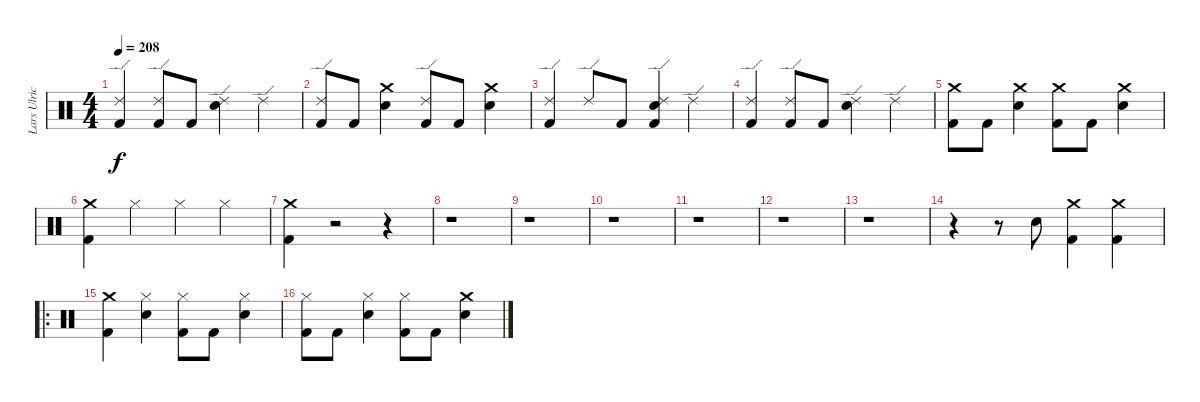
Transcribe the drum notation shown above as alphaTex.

\track ("Lars Ulrich (Drums)" "Lars Ulric") {instrument percussion}
\staff {score}
\articulation defaults
\ts (4 4)
\tempo 208
\clef neutral
\ks c
("Kick (hit) 2" "Ride (edge) 2").4{dy f} ("Kick (hit) 2" "Ride (edge) 2").8 "Kick (hit) 2".8 ("Ride (edge) 2" "Snare (hit) 2").4 "Ride (edge) 2".4 |
("Ride (edge) 2" "Kick (hit) 2").8 "Kick (hit) 2".8 ("Snare (hit) 2" "Crash medium (hit)").4 ("Ride (edge) 2" "Kick (hit) 2").8 "Kick (hit) 2".8 ("Snare (hit) 2" "Crash medium (hit)").4 |
("Ride (edge) 2" "Kick (hit) 2").4 "Ride (edge) 2".8 "Kick (hit) 2".8 ("Ride (edge) 2" "Snare (hit) 2" "Kick (hit) 2").4 "Ride (edge) 2".4 |
("Kick (hit) 2" "Ride (edge) 2").4 ("Ride (edge) 2" "Kick (hit) 2").8 "Kick (hit) 2".8 ("Snare (hit) 2" "Ride (edge) 2").4 "Ride (edge) 2".4 |
("Kick (hit) 2" "Crash medium (hit)").8 "Kick (hit) 2".8 ("Snare (hit) 2" "Crash medium (hit)").4 ("Kick (hit) 2" "Crash medium (hit)").8 "Kick (hit) 2".8 ("Snare (hit) 2" "Crash medium (hit)").4 |
("Kick (hit) 2" "Crash medium (hit)").4 "Hi-Hat (closed)".4 "Hi-Hat (closed)".4 "Hi-Hat (closed)".4 |
("Kick (hit) 2" "Crash medium (hit)").4 r.2 r.4 |
r.1 |
r.1 |
r.1 |
r.1 |
r.1 |
r.1 |
r.4 r.8 "Snare (hit) 2".8 ("Kick (hit) 2" "Crash medium (hit)").4 ("Kick (hit) 2" "Crash medium (hit)").4 |
\ro
("Kick (hit) 2" "Crash medium (hit)").4 ("Hi-Hat (closed)" "Snare (hit) 2").4 ("Kick (hit) 2" "Hi-Hat (closed)").8 "Kick (hit) 2".8 ("Snare (hit) 2" "Hi-Hat (closed)").4 |
("Hi-Hat (closed)" "Kick (hit) 2").8 "Kick (hit) 2".8 ("Snare (hit) 2" "Hi-Hat (closed)").4 ("Hi-Hat (closed)" "Kick (hit) 2").8 "Kick (hit) 2".8 ("Crash medium (hit)" "Snare (hit) 2").4
